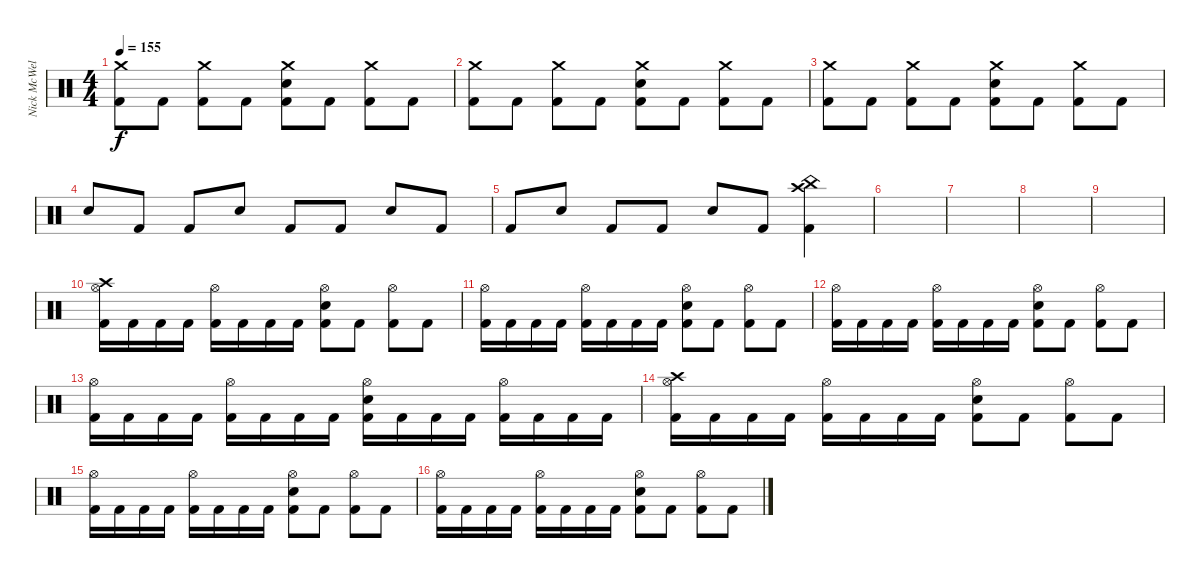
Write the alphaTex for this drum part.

\track ("Nick McWells" "Nick McWel") {instrument percussion}
\staff {score}
\articulation defaults
\ts (4 4)
\tempo 155
\clef neutral
\ks c
("Crash medium (hit)" "Kick (hit) 2").8{dy f} "Kick (hit) 2".8 ("Crash medium (hit)" "Kick (hit) 2").8 "Kick (hit) 2".8 ("Crash medium (hit)" "Electric Snare (hit)" "Kick (hit) 2").8 "Kick (hit) 2".8 ("Crash medium (hit)" "Kick (hit) 2").8 "Kick (hit) 2".8 |
("Crash medium (hit)" "Kick (hit) 2").8 "Kick (hit) 2".8 ("Crash medium (hit)" "Kick (hit) 2").8 "Kick (hit) 2".8 ("Crash medium (hit)" "Electric Snare (hit)" "Kick (hit) 2").8 "Kick (hit) 2".8 ("Crash medium (hit)" "Kick (hit) 2").8 "Kick (hit) 2".8 |
("Crash medium (hit)" "Kick (hit) 2").8 "Kick (hit) 2".8 ("Crash medium (hit)" "Kick (hit) 2").8 "Kick (hit) 2".8 ("Crash medium (hit)" "Electric Snare (hit)" "Kick (hit) 2").8 "Kick (hit) 2".8 ("Crash medium (hit)" "Kick (hit) 2").8 "Kick (hit) 2".8 |
"Electric Snare (hit)".8 "Kick (hit) 2".8 "Kick (hit) 2".8 "Electric Snare (hit)".8 "Kick (hit) 2".8 "Kick (hit) 2".8 "Electric Snare (hit)".8 "Kick (hit) 2".8 |
"Kick (hit) 2".8 "Electric Snare (hit)".8 "Kick (hit) 2".8 "Kick (hit) 2".8 "Electric Snare (hit)".8 "Kick (hit) 2".8 ("China (hit)" "Crash high (hit)" "Kick (hit) 2").4 |
|
|
|
|
("Crash high (hit)" "Hi-Hat (open)" "Kick (hit) 2").16 "Kick (hit) 2".16 "Kick (hit) 2".16 "Kick (hit) 2".16 ("Hi-Hat (open)" "Kick (hit) 2").16 "Kick (hit) 2".16 "Kick (hit) 2".16 "Kick (hit) 2".16 ("Electric Snare (hit)" "Hi-Hat (open)" "Kick (hit) 2").8 "Kick (hit) 2".8 ("Hi-Hat (open)" "Kick (hit) 2").8 "Kick (hit) 2".8 |
("Hi-Hat (open)" "Kick (hit) 2").16 "Kick (hit) 2".16 "Kick (hit) 2".16 "Kick (hit) 2".16 ("Hi-Hat (open)" "Kick (hit) 2").16 "Kick (hit) 2".16 "Kick (hit) 2".16 "Kick (hit) 2".16 ("Electric Snare (hit)" "Hi-Hat (open)" "Kick (hit) 2").8 "Kick (hit) 2".8 ("Hi-Hat (open)" "Kick (hit) 2").8 "Kick (hit) 2".8 |
("Hi-Hat (open)" "Kick (hit) 2").16 "Kick (hit) 2".16 "Kick (hit) 2".16 "Kick (hit) 2".16 ("Hi-Hat (open)" "Kick (hit) 2").16 "Kick (hit) 2".16 "Kick (hit) 2".16 "Kick (hit) 2".16 ("Electric Snare (hit)" "Hi-Hat (open)" "Kick (hit) 2").8 "Kick (hit) 2".8 ("Hi-Hat (open)" "Kick (hit) 2").8 "Kick (hit) 2".8 |
("Hi-Hat (open)" "Kick (hit) 2").16 "Kick (hit) 2".16 "Kick (hit) 2".16 "Kick (hit) 2".16 ("Hi-Hat (open)" "Kick (hit) 2").16 "Kick (hit) 2".16 "Kick (hit) 2".16 "Kick (hit) 2".16 ("Hi-Hat (open)" "Electric Snare (hit)" "Kick (hit) 2").16 "Kick (hit) 2".16 "Kick (hit) 2".16 "Kick (hit) 2".16 ("Hi-Hat (open)" "Kick (hit) 2").16 "Kick (hit) 2".16 "Kick (hit) 2".16 "Kick (hit) 2".16 |
("Crash high (hit)" "Hi-Hat (open)" "Kick (hit) 2").16 "Kick (hit) 2".16 "Kick (hit) 2".16 "Kick (hit) 2".16 ("Hi-Hat (open)" "Kick (hit) 2").16 "Kick (hit) 2".16 "Kick (hit) 2".16 "Kick (hit) 2".16 ("Electric Snare (hit)" "Hi-Hat (open)" "Kick (hit) 2").8 "Kick (hit) 2".8 ("Hi-Hat (open)" "Kick (hit) 2").8 "Kick (hit) 2".8 |
("Hi-Hat (open)" "Kick (hit) 2").16 "Kick (hit) 2".16 "Kick (hit) 2".16 "Kick (hit) 2".16 ("Hi-Hat (open)" "Kick (hit) 2").16 "Kick (hit) 2".16 "Kick (hit) 2".16 "Kick (hit) 2".16 ("Electric Snare (hit)" "Hi-Hat (open)" "Kick (hit) 2").8 "Kick (hit) 2".8 ("Hi-Hat (open)" "Kick (hit) 2").8 "Kick (hit) 2".8 |
("Hi-Hat (open)" "Kick (hit) 2").16 "Kick (hit) 2".16 "Kick (hit) 2".16 "Kick (hit) 2".16 ("Hi-Hat (open)" "Kick (hit) 2").16 "Kick (hit) 2".16 "Kick (hit) 2".16 "Kick (hit) 2".16 ("Electric Snare (hit)" "Hi-Hat (open)" "Kick (hit) 2").8 "Kick (hit) 2".8 ("Hi-Hat (open)" "Kick (hit) 2").8 "Kick (hit) 2".8
